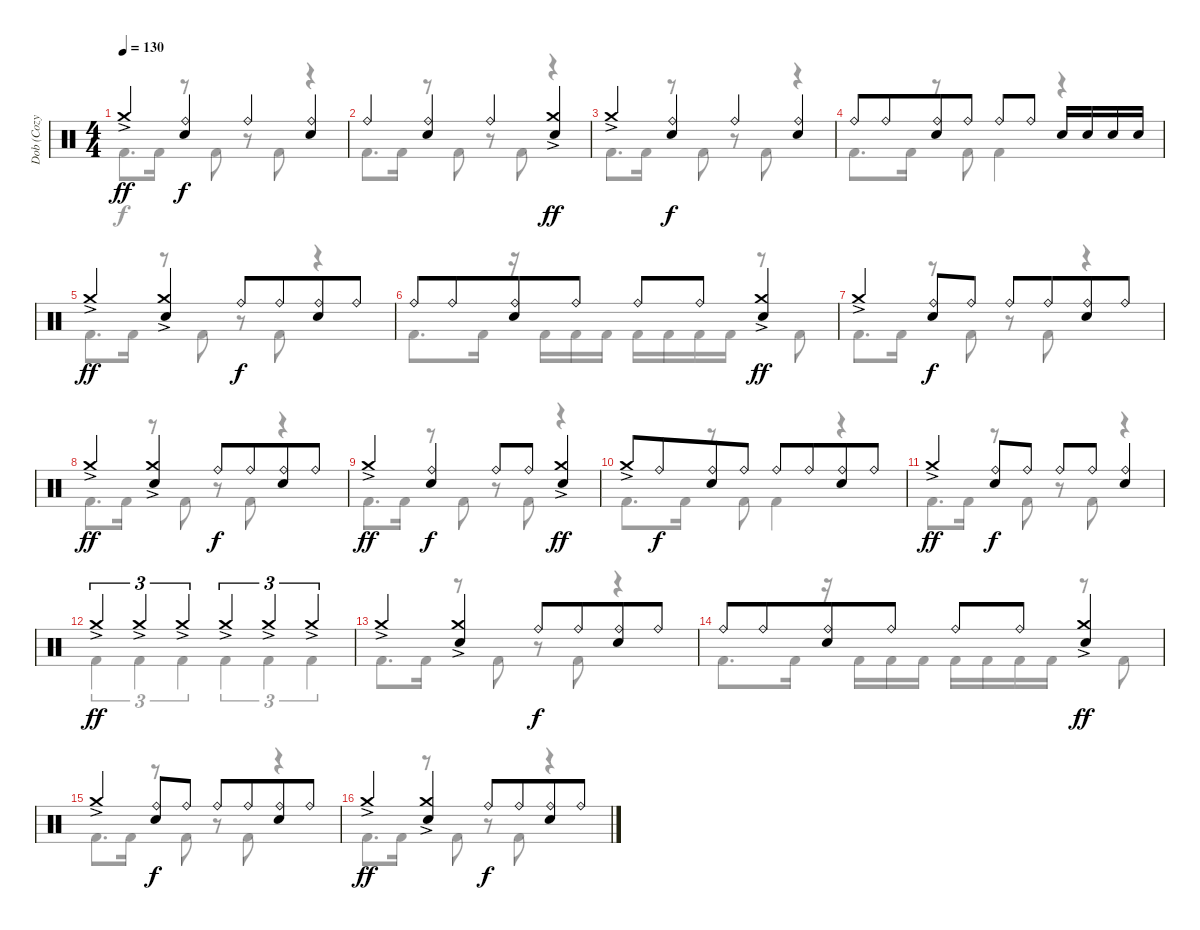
\track ("Dob (Cozy Powell)" "Dob (Cozy ") {instrument percussion}
\staff {score}
\articulation defaults
\voice
\ts (4 4)
\tempo 130
\clef neutral
\ks c "Crash medium (hit)"{ac}.4{dy ff}
("Ride (bell)" "Electric Snare (hit)").4{dy f} "Ride (bell)".4 ("Ride (bell)" "Electric Snare (hit)").4 |
"Ride (bell)".4 ("Ride (bell)" "Electric Snare (hit)").4 "Ride (bell)".4 ("Crash medium (hit)"{ac} "Electric Snare (hit)").4{dy ff} |
"Crash medium (hit)"{ac}.4 ("Ride (bell)" "Electric Snare (hit)").4{dy f} "Ride (bell)".4 ("Ride (bell)" "Electric Snare (hit)").4 |
"Ride (bell)".8 "Ride (bell)".8{beam merge} ("Ride (bell)" "Electric Snare (hit)").8 "Ride (bell)".8 "Ride (bell)".8 "Ride (bell)".8 "Electric Snare (hit)".16 "Electric Snare (hit)".16 "Electric Snare (hit)".16 "Electric Snare (hit)".16 |
"Crash medium (hit)"{ac}.4{dy ff} ("Crash medium (hit)"{ac} "Electric Snare (hit)").4 "Ride (bell)".8{dy f} "Ride (bell)".8{beam merge} ("Ride (bell)" "Electric Snare (hit)").8 "Ride (bell)".8 |
"Ride (bell)".8 "Ride (bell)".8{beam merge} ("Ride (bell)" "Electric Snare (hit)").8 "Ride (bell)".8 "Ride (bell)".8 "Ride (bell)".8 ("Crash medium (hit)"{ac} "Electric Snare (hit)").4{dy ff} |
"Crash medium (hit)"{ac}.4{beam merge} ("Ride (bell)" "Electric Snare (hit)").8{dy f} "Ride (bell)".8 "Ride (bell)".8 "Ride (bell)".8{beam merge} ("Ride (bell)" "Electric Snare (hit)").8 "Ride (bell)".8 |
"Crash medium (hit)"{ac}.4{dy ff} ("Crash medium (hit)"{ac} "Electric Snare (hit)").4 "Ride (bell)".8{dy f} "Ride (bell)".8{beam merge} ("Ride (bell)" "Electric Snare (hit)").8 "Ride (bell)".8 |
"Crash medium (hit)"{ac}.4{dy ff beam merge} ("Ride (bell)" "Electric Snare (hit)").4{dy f} "Ride (bell)".8 "Ride (bell)".8 ("Crash medium (hit)"{ac} "Electric Snare (hit)").4{dy ff} |
"Crash medium (hit)"{ac}.8 "Ride (bell)".8{dy f beam merge} ("Ride (bell)" "Electric Snare (hit)").8 "Ride (bell)".8 "Ride (bell)".8 "Ride (bell)".8{beam merge} ("Ride (bell)" "Electric Snare (hit)").8 "Ride (bell)".8 |
"Crash medium (hit)"{ac}.4{dy ff beam merge} ("Ride (bell)" "Electric Snare (hit)").8{dy f} "Ride (bell)".8 "Ride (bell)".8 "Ride (bell)".8{beam merge} ("Ride (bell)" "Electric Snare (hit)").4 |
"Crash medium (hit)"{ac}.4{tu (3 2) dy ff} "Crash medium (hit)"{ac}.4{tu (3 2)} "Crash medium (hit)"{ac}.4{tu (3 2)} "Crash medium (hit)"{ac}.4{tu (3 2)} "Crash medium (hit)"{ac}.4{tu (3 2)} "Crash medium (hit)"{ac}.4{tu (3 2)} |
"Crash medium (hit)"{ac}.4 ("Crash medium (hit)"{ac} "Electric Snare (hit)").4 "Ride (bell)".8{dy f} "Ride (bell)".8{beam merge} ("Ride (bell)" "Electric Snare (hit)").8 "Ride (bell)".8 |
"Ride (bell)".8 "Ride (bell)".8{beam merge} ("Ride (bell)" "Electric Snare (hit)").8 "Ride (bell)".8 "Ride (bell)".8 "Ride (bell)".8 ("Crash medium (hit)"{ac} "Electric Snare (hit)").4{dy ff} |
"Crash medium (hit)"{ac}.4{beam merge} ("Ride (bell)" "Electric Snare (hit)").8{dy f} "Ride (bell)".8 "Ride (bell)".8 "Ride (bell)".8{beam merge} ("Ride (bell)" "Electric Snare (hit)").8 "Ride (bell)".8 |
"Crash medium (hit)"{ac}.4{dy ff} ("Crash medium (hit)"{ac} "Electric Snare (hit)").4 "Ride (bell)".8{dy f} "Ride (bell)".8{beam merge} ("Ride (bell)" "Electric Snare (hit)").8 "Ride (bell)".8
\voice
\clef neutral
\ottava regular
\simile none
\ks c "Kick (hit) 2".8{d dy f} "Kick (hit) 2".16
r.8 "Kick (hit) 2".8 r.8 "Kick (hit) 2".8 r.4 |
"Kick (hit) 2".8{d} "Kick (hit) 2".16 r.8 "Kick (hit) 2".8 r.8 "Kick (hit) 2".8 r.4 |
"Kick (hit) 2".8{d} "Kick (hit) 2".16 r.8 "Kick (hit) 2".8 r.8 "Kick (hit) 2".8 r.4 |
"Kick (hit) 2".8{d} "Kick (hit) 2".16 r.8 "Kick (hit) 2".8 "Kick (hit) 2".4 r.4 |
"Kick (hit) 2".8{d} "Kick (hit) 2".16 r.8 "Kick (hit) 2".8 r.8 "Kick (hit) 2".8 r.4 |
"Kick (hit) 2".8{d} "Kick (hit) 2".16 r.16 "Kick (hit) 2".16 "Kick (hit) 2".16 "Kick (hit) 2".16 "Kick (hit) 2".16 "Kick (hit) 2".16 "Kick (hit) 2".16 "Kick (hit) 2".16 r.8 "Kick (hit) 2".8 |
"Kick (hit) 2".8{d} "Kick (hit) 2".16 r.8 "Kick (hit) 2".8 r.8 "Kick (hit) 2".8 r.4 |
"Kick (hit) 2".8{d} "Kick (hit) 2".16 r.8 "Kick (hit) 2".8 r.8 "Kick (hit) 2".8 r.4 |
"Kick (hit) 2".8{d} "Kick (hit) 2".16 r.8 "Kick (hit) 2".8 r.8 "Kick (hit) 2".8 r.4 |
"Kick (hit) 2".8{d} "Kick (hit) 2".16 r.8 "Kick (hit) 2".8 "Kick (hit) 2".4 r.4 |
"Kick (hit) 2".8{d} "Kick (hit) 2".16 r.8 "Kick (hit) 2".8 r.8 "Kick (hit) 2".8 r.4 |
"Kick (hit) 2".4{tu (3 2)} "Kick (hit) 2".4{tu (3 2)} "Kick (hit) 2".4{tu (3 2)} "Kick (hit) 2".4{tu (3 2)} "Kick (hit) 2".4{tu (3 2)} "Kick (hit) 2".4{tu (3 2)} |
"Kick (hit) 2".8{d} "Kick (hit) 2".16 r.8 "Kick (hit) 2".8 r.8 "Kick (hit) 2".8 r.4 |
"Kick (hit) 2".8{d} "Kick (hit) 2".16 r.16 "Kick (hit) 2".16 "Kick (hit) 2".16 "Kick (hit) 2".16 "Kick (hit) 2".16 "Kick (hit) 2".16 "Kick (hit) 2".16 "Kick (hit) 2".16 r.8 "Kick (hit) 2".8 |
"Kick (hit) 2".8{d} "Kick (hit) 2".16 r.8 "Kick (hit) 2".8 r.8 "Kick (hit) 2".8 r.4 |
"Kick (hit) 2".8{d} "Kick (hit) 2".16 r.8 "Kick (hit) 2".8 r.8 "Kick (hit) 2".8 r.4
